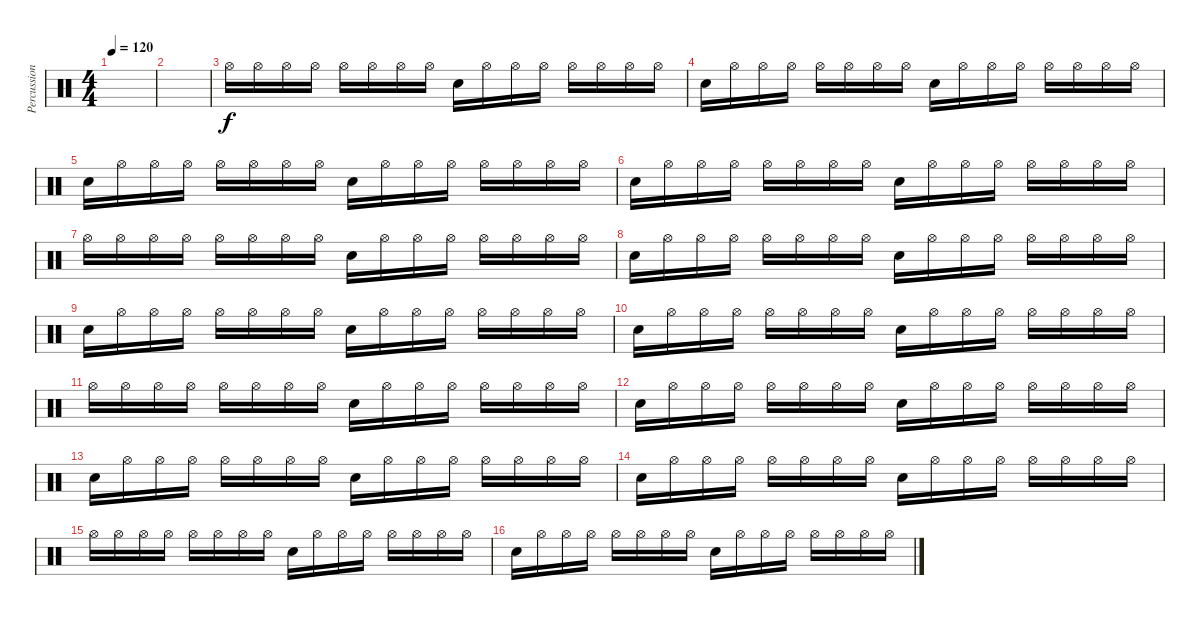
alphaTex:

\track ("Percussion" "Percussion") {instrument percussion}
\staff {score}
\articulation defaults
\ts (4 4)
\tempo 120
\clef neutral
\ks c
|
|
"Hi-Hat (open)".16 "Hi-Hat (open)".16 "Hi-Hat (open)".16 "Hi-Hat (open)".16 "Hi-Hat (open)".16 "Hi-Hat (open)".16 "Hi-Hat (open)".16 "Hi-Hat (open)".16 "Electric Snare (hit)".16 "Hi-Hat (open)".16 "Hi-Hat (open)".16 "Hi-Hat (open)".16 "Hi-Hat (open)".16 "Hi-Hat (open)".16 "Hi-Hat (open)".16 "Hi-Hat (open)".16 |
"Electric Snare (hit)".16 "Hi-Hat (open)".16 "Hi-Hat (open)".16 "Hi-Hat (open)".16 "Hi-Hat (open)".16 "Hi-Hat (open)".16 "Hi-Hat (open)".16 "Hi-Hat (open)".16 "Electric Snare (hit)".16 "Hi-Hat (open)".16 "Hi-Hat (open)".16 "Hi-Hat (open)".16 "Hi-Hat (open)".16 "Hi-Hat (open)".16 "Hi-Hat (open)".16 "Hi-Hat (open)".16 |
"Electric Snare (hit)".16 "Hi-Hat (open)".16 "Hi-Hat (open)".16 "Hi-Hat (open)".16 "Hi-Hat (open)".16 "Hi-Hat (open)".16 "Hi-Hat (open)".16 "Hi-Hat (open)".16 "Electric Snare (hit)".16 "Hi-Hat (open)".16 "Hi-Hat (open)".16 "Hi-Hat (open)".16 "Hi-Hat (open)".16 "Hi-Hat (open)".16 "Hi-Hat (open)".16 "Hi-Hat (open)".16 |
"Electric Snare (hit)".16 "Hi-Hat (open)".16 "Hi-Hat (open)".16 "Hi-Hat (open)".16 "Hi-Hat (open)".16 "Hi-Hat (open)".16 "Hi-Hat (open)".16 "Hi-Hat (open)".16 "Electric Snare (hit)".16 "Hi-Hat (open)".16 "Hi-Hat (open)".16 "Hi-Hat (open)".16 "Hi-Hat (open)".16 "Hi-Hat (open)".16 "Hi-Hat (open)".16 "Hi-Hat (open)".16 |
"Hi-Hat (open)".16 "Hi-Hat (open)".16 "Hi-Hat (open)".16 "Hi-Hat (open)".16 "Hi-Hat (open)".16 "Hi-Hat (open)".16 "Hi-Hat (open)".16 "Hi-Hat (open)".16 "Electric Snare (hit)".16 "Hi-Hat (open)".16 "Hi-Hat (open)".16 "Hi-Hat (open)".16 "Hi-Hat (open)".16 "Hi-Hat (open)".16 "Hi-Hat (open)".16 "Hi-Hat (open)".16 |
"Electric Snare (hit)".16 "Hi-Hat (open)".16 "Hi-Hat (open)".16 "Hi-Hat (open)".16 "Hi-Hat (open)".16 "Hi-Hat (open)".16 "Hi-Hat (open)".16 "Hi-Hat (open)".16 "Electric Snare (hit)".16 "Hi-Hat (open)".16 "Hi-Hat (open)".16 "Hi-Hat (open)".16 "Hi-Hat (open)".16 "Hi-Hat (open)".16 "Hi-Hat (open)".16 "Hi-Hat (open)".16 |
"Electric Snare (hit)".16 "Hi-Hat (open)".16 "Hi-Hat (open)".16 "Hi-Hat (open)".16 "Hi-Hat (open)".16 "Hi-Hat (open)".16 "Hi-Hat (open)".16 "Hi-Hat (open)".16 "Electric Snare (hit)".16 "Hi-Hat (open)".16 "Hi-Hat (open)".16 "Hi-Hat (open)".16 "Hi-Hat (open)".16 "Hi-Hat (open)".16 "Hi-Hat (open)".16 "Hi-Hat (open)".16 |
"Electric Snare (hit)".16 "Hi-Hat (open)".16 "Hi-Hat (open)".16 "Hi-Hat (open)".16 "Hi-Hat (open)".16 "Hi-Hat (open)".16 "Hi-Hat (open)".16 "Hi-Hat (open)".16 "Electric Snare (hit)".16 "Hi-Hat (open)".16 "Hi-Hat (open)".16 "Hi-Hat (open)".16 "Hi-Hat (open)".16 "Hi-Hat (open)".16 "Hi-Hat (open)".16 "Hi-Hat (open)".16 |
"Hi-Hat (open)".16 "Hi-Hat (open)".16 "Hi-Hat (open)".16 "Hi-Hat (open)".16 "Hi-Hat (open)".16 "Hi-Hat (open)".16 "Hi-Hat (open)".16 "Hi-Hat (open)".16 "Electric Snare (hit)".16 "Hi-Hat (open)".16 "Hi-Hat (open)".16 "Hi-Hat (open)".16 "Hi-Hat (open)".16 "Hi-Hat (open)".16 "Hi-Hat (open)".16 "Hi-Hat (open)".16 |
"Electric Snare (hit)".16 "Hi-Hat (open)".16 "Hi-Hat (open)".16 "Hi-Hat (open)".16 "Hi-Hat (open)".16 "Hi-Hat (open)".16 "Hi-Hat (open)".16 "Hi-Hat (open)".16 "Electric Snare (hit)".16 "Hi-Hat (open)".16 "Hi-Hat (open)".16 "Hi-Hat (open)".16 "Hi-Hat (open)".16 "Hi-Hat (open)".16 "Hi-Hat (open)".16 "Hi-Hat (open)".16 |
"Electric Snare (hit)".16 "Hi-Hat (open)".16 "Hi-Hat (open)".16 "Hi-Hat (open)".16 "Hi-Hat (open)".16 "Hi-Hat (open)".16 "Hi-Hat (open)".16 "Hi-Hat (open)".16 "Electric Snare (hit)".16 "Hi-Hat (open)".16 "Hi-Hat (open)".16 "Hi-Hat (open)".16 "Hi-Hat (open)".16 "Hi-Hat (open)".16 "Hi-Hat (open)".16 "Hi-Hat (open)".16 |
"Electric Snare (hit)".16 "Hi-Hat (open)".16 "Hi-Hat (open)".16 "Hi-Hat (open)".16 "Hi-Hat (open)".16 "Hi-Hat (open)".16 "Hi-Hat (open)".16 "Hi-Hat (open)".16 "Electric Snare (hit)".16 "Hi-Hat (open)".16 "Hi-Hat (open)".16 "Hi-Hat (open)".16 "Hi-Hat (open)".16 "Hi-Hat (open)".16 "Hi-Hat (open)".16 "Hi-Hat (open)".16 |
"Hi-Hat (open)".16 "Hi-Hat (open)".16 "Hi-Hat (open)".16 "Hi-Hat (open)".16 "Hi-Hat (open)".16 "Hi-Hat (open)".16 "Hi-Hat (open)".16 "Hi-Hat (open)".16 "Electric Snare (hit)".16 "Hi-Hat (open)".16 "Hi-Hat (open)".16 "Hi-Hat (open)".16 "Hi-Hat (open)".16 "Hi-Hat (open)".16 "Hi-Hat (open)".16 "Hi-Hat (open)".16 |
"Electric Snare (hit)".16 "Hi-Hat (open)".16 "Hi-Hat (open)".16 "Hi-Hat (open)".16 "Hi-Hat (open)".16 "Hi-Hat (open)".16 "Hi-Hat (open)".16 "Hi-Hat (open)".16 "Electric Snare (hit)".16 "Hi-Hat (open)".16 "Hi-Hat (open)".16 "Hi-Hat (open)".16 "Hi-Hat (open)".16 "Hi-Hat (open)".16 "Hi-Hat (open)".16 "Hi-Hat (open)".16
